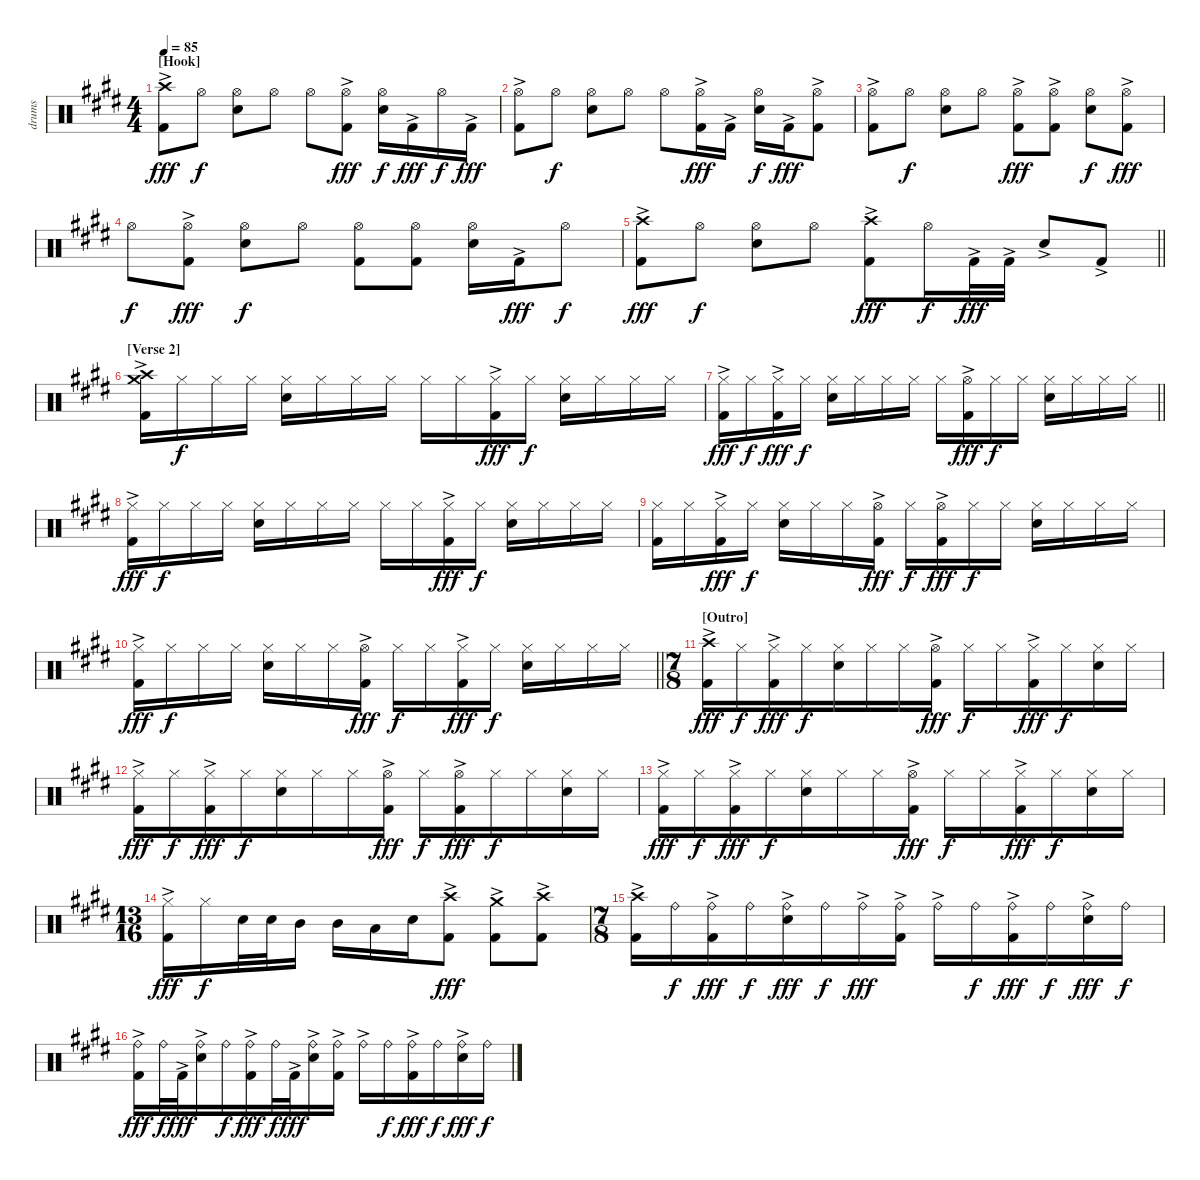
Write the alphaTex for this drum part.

\track ("drums" "drums") {instrument percussion}
\staff {score}
\articulation defaults
\ts (4 4)
\section ("" "[Hook]")
\tempo 85
\clef neutral
\ks e
("Crash high (hit)" "Kick (hit) 2"{ac}).8{dy fff} "Hi-Hat (open)".8{dy f} ("Hi-Hat (open)" "Snare (hit) 2").8 "Hi-Hat (open)".8 "Hi-Hat (open)".8 ("Hi-Hat (open)" "Kick (hit) 2"{ac}).8{dy fff} ("Hi-Hat (open)" "Snare (hit) 2").16{dy f} "Kick (hit) 2"{ac}.16{dy fff} "Hi-Hat (open)".16{dy f} "Kick (hit) 2"{ac}.16{dy fff} |
("Hi-Hat (open)" "Kick (hit) 2"{ac}).8 "Hi-Hat (open)".8{dy f} ("Hi-Hat (open)" "Snare (hit) 2").8 "Hi-Hat (open)".8 "Hi-Hat (open)".8 ("Hi-Hat (open)" "Kick (hit) 2"{ac}).16{dy fff} "Kick (hit) 2"{ac}.16 ("Hi-Hat (open)" "Snare (hit) 2").16{dy f} "Kick (hit) 2"{ac}.16{dy fff} ("Hi-Hat (open)" "Kick (hit) 2"{ac}).8 |
("Hi-Hat (open)" "Kick (hit) 2"{ac}).8 "Hi-Hat (open)".8{dy f} ("Hi-Hat (open)" "Snare (hit) 2").8 "Hi-Hat (open)".8 ("Hi-Hat (open)" "Kick (hit) 2"{ac}).8{dy fff} ("Hi-Hat (open)" "Kick (hit) 2"{ac}).8 ("Hi-Hat (open)" "Snare (hit) 2").8{dy f} ("Hi-Hat (open)" "Kick (hit) 2"{ac}).8{dy fff} |
"Hi-Hat (open)".8{dy f} ("Hi-Hat (open)" "Kick (hit) 2"{ac}).8{dy fff} ("Hi-Hat (open)" "Snare (hit) 2").8{dy f} "Hi-Hat (open)".8 ("Hi-Hat (open)" "Kick (hit) 2").8 ("Hi-Hat (open)" "Kick (hit) 2").8 ("Hi-Hat (open)" "Snare (hit) 2").16 "Kick (hit) 2"{ac}.16{dy fff} "Hi-Hat (open)".8{dy f} |
\barLineRight lightlight
("Crash high (hit)" "Kick (hit) 2"{ac}).8{dy fff} "Hi-Hat (open)".8{dy f} ("Hi-Hat (open)" "Snare (hit) 2").8 "Hi-Hat (open)".8 ("Crash high (hit)" "Kick (hit) 2"{ac}).8{dy fff} "Hi-Hat (open)".16{dy f} "Kick (hit) 2"{ac}.32{dy fff} "Kick (hit) 2"{ac}.32 "Snare (hit) 2"{ac}.8 "Kick (hit) 2"{ac}.8 |
\section ("" "[Verse 2]")
("Crash high (hit)" "Crash medium (hit)" "Kick (hit) 2"{ac}).16 "Hi-Hat (closed)".16{dy f} "Hi-Hat (closed)".16 "Hi-Hat (closed)".16 ("Hi-Hat (closed)" "Snare (hit) 2").16 "Hi-Hat (closed)".16 "Hi-Hat (closed)".16 "Hi-Hat (closed)".16 "Hi-Hat (closed)".16 "Hi-Hat (closed)".16 ("Hi-Hat (closed)" "Kick (hit) 2"{ac}).16{dy fff} "Hi-Hat (closed)".16{dy f} ("Hi-Hat (closed)" "Snare (hit) 2").16 "Hi-Hat (closed)".16 "Hi-Hat (closed)".16 "Hi-Hat (closed)".16 |
\barLineRight lightlight
("Hi-Hat (closed)" "Kick (hit) 2"{ac}).16{dy fff} "Hi-Hat (closed)".16{dy f} ("Hi-Hat (closed)" "Kick (hit) 2"{ac}).16{dy fff} "Hi-Hat (closed)".16{dy f} ("Hi-Hat (closed)" "Snare (hit) 2").16 "Hi-Hat (closed)".16 "Hi-Hat (closed)".16 "Hi-Hat (closed)".16 "Hi-Hat (closed)".16 ("Hi-Hat (open)" "Kick (hit) 2"{ac}).16{dy fff} "Hi-Hat (closed)".16{dy f} "Hi-Hat (closed)".16 ("Hi-Hat (closed)" "Snare (hit) 2").16 "Hi-Hat (closed)".16 "Hi-Hat (closed)".16 "Hi-Hat (closed)".16 |
("Hi-Hat (closed)" "Kick (hit) 2"{ac}).16{dy fff} "Hi-Hat (closed)".16{dy f} "Hi-Hat (closed)".16 "Hi-Hat (closed)".16 ("Hi-Hat (closed)" "Snare (hit) 2").16 "Hi-Hat (closed)".16 "Hi-Hat (closed)".16 "Hi-Hat (closed)".16 "Hi-Hat (closed)".16 "Hi-Hat (closed)".16 ("Hi-Hat (closed)" "Kick (hit) 2"{ac}).16{dy fff} "Hi-Hat (closed)".16{dy f} ("Hi-Hat (closed)" "Snare (hit) 2").16 "Hi-Hat (closed)".16 "Hi-Hat (closed)".16 "Hi-Hat (closed)".16 |
("Hi-Hat (closed)" "Kick (hit) 2").16 "Hi-Hat (closed)".16 ("Hi-Hat (closed)" "Kick (hit) 2"{ac}).16{dy fff} "Hi-Hat (closed)".16{dy f} ("Hi-Hat (closed)" "Snare (hit) 2").16 "Hi-Hat (closed)".16 "Hi-Hat (closed)".16 ("Hi-Hat (open)" "Kick (hit) 2"{ac}).16{dy fff} "Hi-Hat (closed)".16{dy f} ("Hi-Hat (open)" "Kick (hit) 2"{ac}).16{dy fff} "Hi-Hat (closed)".16{dy f} "Hi-Hat (closed)".16 ("Hi-Hat (closed)" "Snare (hit) 2").16 "Hi-Hat (closed)".16 "Hi-Hat (closed)".16 "Hi-Hat (closed)".16 |
\barLineRight lightlight
("Hi-Hat (closed)" "Kick (hit) 2"{ac}).16{dy fff} "Hi-Hat (closed)".16{dy f} "Hi-Hat (closed)".16 "Hi-Hat (closed)".16 ("Hi-Hat (closed)" "Snare (hit) 2").16 "Hi-Hat (closed)".16 "Hi-Hat (closed)".16 ("Hi-Hat (open)" "Kick (hit) 2"{ac}).16{dy fff} "Hi-Hat (closed)".16{dy f} "Hi-Hat (closed)".16 ("Hi-Hat (closed)" "Kick (hit) 2"{ac}).16{dy fff} "Hi-Hat (closed)".16{dy f} ("Hi-Hat (closed)" "Snare (hit) 2").16 "Hi-Hat (closed)".16 "Hi-Hat (closed)".16 "Hi-Hat (closed)".16 |
\ts (7 8)
\section ("" "[Outro]")
("Crash high (hit)" "Kick (hit) 2"{ac}).16{dy fff} "Hi-Hat (closed)".16{dy f} ("Hi-Hat (closed)" "Kick (hit) 2"{ac}).16{dy fff} "Hi-Hat (closed)".16{dy f} ("Hi-Hat (closed)" "Snare (hit) 2").16 "Hi-Hat (closed)".16 "Hi-Hat (closed)".16 ("Hi-Hat (open)" "Kick (hit) 2"{ac}).16{dy fff} "Hi-Hat (closed)".16{dy f} "Hi-Hat (closed)".16 ("Hi-Hat (closed)" "Kick (hit) 2"{ac}).16{dy fff} "Hi-Hat (closed)".16{dy f} ("Hi-Hat (closed)" "Snare (hit) 2").16 "Hi-Hat (closed)".16 |
("Hi-Hat (closed)" "Kick (hit) 2"{ac}).16{dy fff} "Hi-Hat (closed)".16{dy f} ("Hi-Hat (closed)" "Kick (hit) 2"{ac}).16{dy fff} "Hi-Hat (closed)".16{dy f} ("Hi-Hat (closed)" "Snare (hit) 2").16 "Hi-Hat (closed)".16 "Hi-Hat (closed)".16 ("Hi-Hat (open)" "Kick (hit) 2"{ac}).16{dy fff} "Hi-Hat (closed)".16{dy f} ("Hi-Hat (open)" "Kick (hit) 2"{ac}).16{dy fff} "Hi-Hat (closed)".16{dy f} "Hi-Hat (closed)".16 ("Hi-Hat (closed)" "Snare (hit) 2").16 "Hi-Hat (closed)".16 |
("Hi-Hat (closed)" "Kick (hit) 2"{ac}).16{dy fff} "Hi-Hat (closed)".16{dy f} ("Hi-Hat (closed)" "Kick (hit) 2"{ac}).16{dy fff} "Hi-Hat (closed)".16{dy f} ("Hi-Hat (closed)" "Snare (hit) 2").16 "Hi-Hat (closed)".16 "Hi-Hat (closed)".16 ("Hi-Hat (open)" "Kick (hit) 2"{ac}).16{dy fff} "Hi-Hat (closed)".16{dy f} "Hi-Hat (closed)".16 ("Hi-Hat (closed)" "Kick (hit) 2"{ac}).16{dy fff} "Hi-Hat (closed)".16{dy f} ("Hi-Hat (closed)" "Snare (hit) 2").16 "Hi-Hat (closed)".16 |
\ts (13 16)
("Hi-Hat (closed)" "Kick (hit) 2"{ac}).16{dy fff} "Hi-Hat (closed)".16{dy f} "Snare (hit) 2".32 "Snare (hit) 2".32 "Mid Tom (hit)".16 "Mid Tom (hit)".16 "Low Tom (hit)".16 "Snare (hit) 2".16 ("Crash high (hit)" "Kick (hit) 2"{ac}).8{dy fff} ("Crash medium (hit)" "Kick (hit) 2"{ac}).8 ("Crash high (hit)" "Kick (hit) 2"{ac}).8 |
\ts (7 8)
("Crash high (hit)" "Kick (hit) 2"{ac}).16 "Ride (bell)".16{dy f} ("Ride (bell)"{ac} "Kick (hit) 2"{ac}).16{dy fff} "Ride (bell)".16{dy f} ("Ride (bell)"{ac} "Snare (hit) 2").16{dy fff} "Ride (bell)".16{dy f} "Ride (bell)"{ac}.16{dy fff} ("Ride (bell)" "Kick (hit) 2"{ac}).16 "Ride (bell)"{ac}.16 "Ride (bell)".16{dy f} ("Ride (bell)"{ac} "Kick (hit) 2"{ac}).16{dy fff} "Ride (bell)".16{dy f} ("Ride (bell)"{ac} "Snare (hit) 2").16{dy fff} "Ride (bell)".16{dy f} |
("Ride (bell)"{ac} "Kick (hit) 2"{ac}).16{dy fff} "Ride (bell)".32{dy f} "Kick (hit) 2"{ac}.32{dy fff} ("Ride (bell)"{ac} "Snare (hit) 2").16 "Ride (bell)".16{dy f} ("Ride (bell)"{ac} "Kick (hit) 2"{ac}).16{dy fff} "Ride (bell)".32{dy f} "Kick (hit) 2"{ac}.32{dy fff} ("Ride (bell)"{ac} "Snare (hit) 2").16 ("Ride (bell)" "Kick (hit) 2"{ac}).16 "Ride (bell)"{ac}.16 "Ride (bell)".16{dy f} ("Ride (bell)"{ac} "Kick (hit) 2"{ac}).16{dy fff} "Ride (bell)".16{dy f} ("Ride (bell)"{ac} "Snare (hit) 2").16{dy fff} "Ride (bell)".16{dy f}
